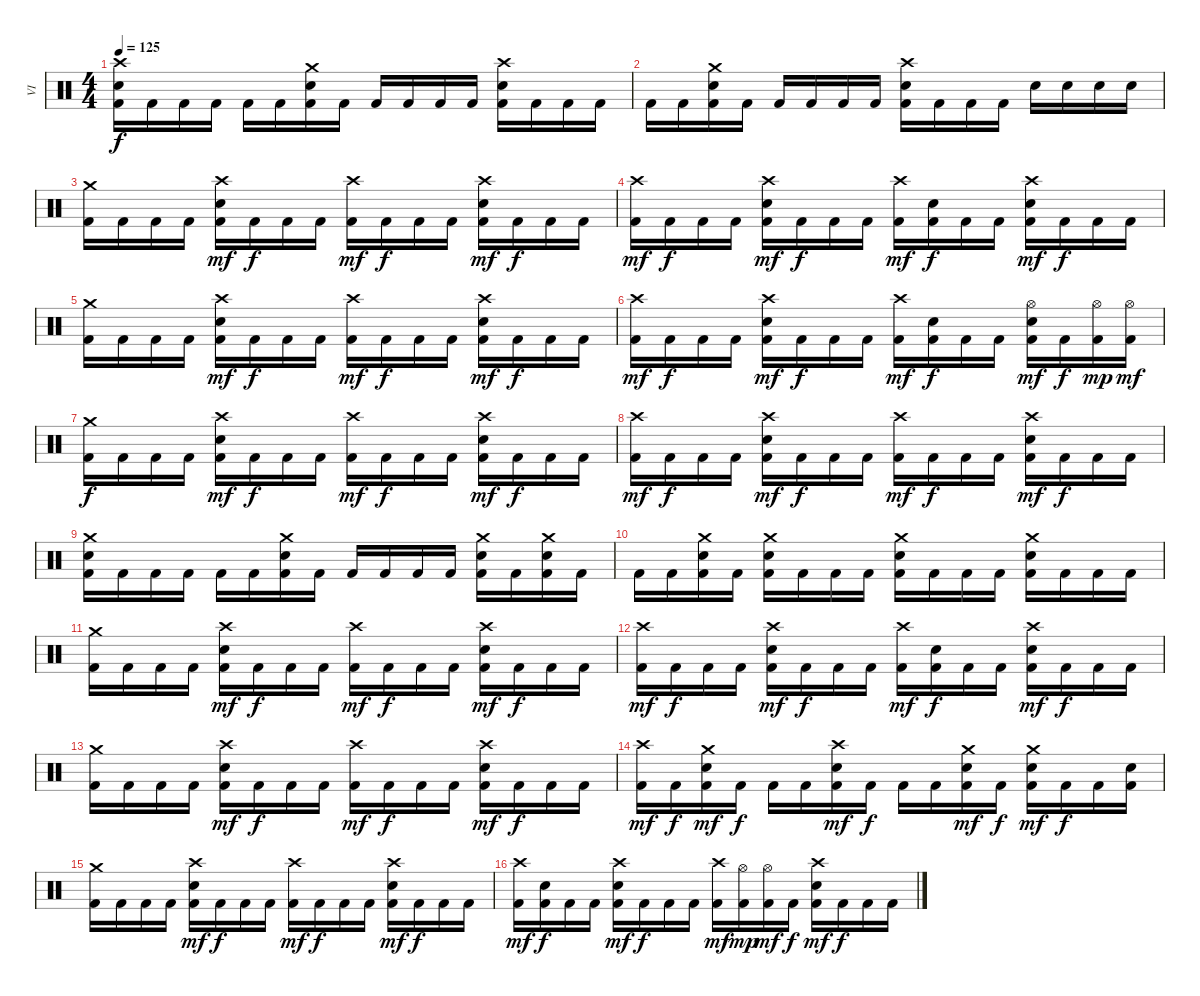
\track ("VI" "VI") {instrument percussion}
\staff {score}
\articulation defaults
\ts (4 4)
\tempo 125
\clef neutral
\ks c
("Crash high (hit)" "Electric Snare (hit)" "Kick (hit) 2").16{dy f} "Kick (hit) 2".16 "Kick (hit) 2".16 "Kick (hit) 2".16 "Kick (hit) 2".16 "Kick (hit) 2".16 ("Crash medium (hit)" "Electric Snare (hit)" "Kick (hit) 2").16 "Kick (hit) 2".16 "Kick (hit) 2".16 "Kick (hit) 2".16 "Kick (hit) 2".16 "Kick (hit) 2".16 ("Crash high (hit)" "Electric Snare (hit)" "Kick (hit) 2").16 "Kick (hit) 2".16 "Kick (hit) 2".16 "Kick (hit) 2".16 |
"Kick (hit) 2".16 "Kick (hit) 2".16 ("Crash medium (hit)" "Electric Snare (hit)" "Kick (hit) 2").16 "Kick (hit) 2".16 "Kick (hit) 2".16 "Kick (hit) 2".16 "Kick (hit) 2".16 "Kick (hit) 2".16 ("Crash high (hit)" "Electric Snare (hit)" "Kick (hit) 2").16 "Kick (hit) 2".16 "Kick (hit) 2".16 "Kick (hit) 2".16 "Electric Snare (hit)".16 "Electric Snare (hit)".16 "Electric Snare (hit)".16 "Electric Snare (hit)".16 |
("Crash medium (hit)" "Kick (hit) 2").16 "Kick (hit) 2".16 "Kick (hit) 2".16 "Kick (hit) 2".16 ("Crash high (hit)" "Electric Snare (hit)" "Kick (hit) 2").16{dy mf} "Kick (hit) 2".16{dy f} "Kick (hit) 2".16 "Kick (hit) 2".16 ("Crash high (hit)" "Kick (hit) 2").16{dy mf} "Kick (hit) 2".16{dy f} "Kick (hit) 2".16 "Kick (hit) 2".16 ("Crash high (hit)" "Electric Snare (hit)" "Kick (hit) 2").16{dy mf} "Kick (hit) 2".16{dy f} "Kick (hit) 2".16 "Kick (hit) 2".16 |
("Crash high (hit)" "Kick (hit) 2").16{dy mf} "Kick (hit) 2".16{dy f} "Kick (hit) 2".16 "Kick (hit) 2".16 ("Crash high (hit)" "Electric Snare (hit)" "Kick (hit) 2").16{dy mf} "Kick (hit) 2".16{dy f} "Kick (hit) 2".16 "Kick (hit) 2".16 ("Crash high (hit)" "Kick (hit) 2").16{dy mf} ("Electric Snare (hit)" "Kick (hit) 2").16{dy f} "Kick (hit) 2".16 "Kick (hit) 2".16 ("Crash high (hit)" "Electric Snare (hit)" "Kick (hit) 2").16{dy mf} "Kick (hit) 2".16{dy f} "Kick (hit) 2".16 "Kick (hit) 2".16 |
("Crash medium (hit)" "Kick (hit) 2").16 "Kick (hit) 2".16 "Kick (hit) 2".16 "Kick (hit) 2".16 ("Crash high (hit)" "Electric Snare (hit)" "Kick (hit) 2").16{dy mf} "Kick (hit) 2".16{dy f} "Kick (hit) 2".16 "Kick (hit) 2".16 ("Crash high (hit)" "Kick (hit) 2").16{dy mf} "Kick (hit) 2".16{dy f} "Kick (hit) 2".16 "Kick (hit) 2".16 ("Crash high (hit)" "Electric Snare (hit)" "Kick (hit) 2").16{dy mf} "Kick (hit) 2".16{dy f} "Kick (hit) 2".16 "Kick (hit) 2".16 |
("Crash high (hit)" "Kick (hit) 2").16{dy mf} "Kick (hit) 2".16{dy f} "Kick (hit) 2".16 "Kick (hit) 2".16 ("Crash high (hit)" "Electric Snare (hit)" "Kick (hit) 2").16{dy mf} "Kick (hit) 2".16{dy f} "Kick (hit) 2".16 "Kick (hit) 2".16 ("Crash high (hit)" "Kick (hit) 2").16{dy mf} ("Electric Snare (hit)" "Kick (hit) 2").16{dy f} "Kick (hit) 2".16 "Kick (hit) 2".16 ("Hi-Hat (open)" "Electric Snare (hit)" "Kick (hit) 2").16{dy mf} "Kick (hit) 2".16{dy f} ("Hi-Hat (open)" "Kick (hit) 2").16{dy mp} ("Hi-Hat (open)" "Kick (hit) 2").16{dy mf} |
("Crash medium (hit)" "Kick (hit) 2").16{dy f} "Kick (hit) 2".16 "Kick (hit) 2".16 "Kick (hit) 2".16 ("Crash high (hit)" "Electric Snare (hit)" "Kick (hit) 2").16{dy mf} "Kick (hit) 2".16{dy f} "Kick (hit) 2".16 "Kick (hit) 2".16 ("Crash high (hit)" "Kick (hit) 2").16{dy mf} "Kick (hit) 2".16{dy f} "Kick (hit) 2".16 "Kick (hit) 2".16 ("Crash high (hit)" "Electric Snare (hit)" "Kick (hit) 2").16{dy mf} "Kick (hit) 2".16{dy f} "Kick (hit) 2".16 "Kick (hit) 2".16 |
("Crash high (hit)" "Kick (hit) 2").16{dy mf} "Kick (hit) 2".16{dy f} "Kick (hit) 2".16 "Kick (hit) 2".16 ("Crash high (hit)" "Electric Snare (hit)" "Kick (hit) 2").16{dy mf} "Kick (hit) 2".16{dy f} "Kick (hit) 2".16 "Kick (hit) 2".16 ("Crash high (hit)" "Kick (hit) 2").16{dy mf} "Kick (hit) 2".16{dy f} "Kick (hit) 2".16 "Kick (hit) 2".16 ("Crash high (hit)" "Electric Snare (hit)" "Kick (hit) 2").16{dy mf} "Kick (hit) 2".16{dy f} "Kick (hit) 2".16 "Kick (hit) 2".16 |
("Crash medium (hit)" "Electric Snare (hit)" "Kick (hit) 2").16 "Kick (hit) 2".16 "Kick (hit) 2".16 "Kick (hit) 2".16 "Kick (hit) 2".16 "Kick (hit) 2".16 ("Crash medium (hit)" "Electric Snare (hit)" "Kick (hit) 2").16 "Kick (hit) 2".16 "Kick (hit) 2".16 "Kick (hit) 2".16 "Kick (hit) 2".16 "Kick (hit) 2".16 ("Crash medium (hit)" "Electric Snare (hit)" "Kick (hit) 2").16 "Kick (hit) 2".16 ("Crash medium (hit)" "Electric Snare (hit)" "Kick (hit) 2").16 "Kick (hit) 2".16 |
"Kick (hit) 2".16 "Kick (hit) 2".16 ("Crash medium (hit)" "Electric Snare (hit)" "Kick (hit) 2").16 "Kick (hit) 2".16 ("Crash medium (hit)" "Electric Snare (hit)" "Kick (hit) 2").16 "Kick (hit) 2".16 "Kick (hit) 2".16 "Kick (hit) 2".16 ("Crash medium (hit)" "Electric Snare (hit)" "Kick (hit) 2").16 "Kick (hit) 2".16 "Kick (hit) 2".16 "Kick (hit) 2".16 ("Crash medium (hit)" "Electric Snare (hit)" "Kick (hit) 2").16 "Kick (hit) 2".16 "Kick (hit) 2".16 "Kick (hit) 2".16 |
("Crash medium (hit)" "Kick (hit) 2").16 "Kick (hit) 2".16 "Kick (hit) 2".16 "Kick (hit) 2".16 ("Crash high (hit)" "Electric Snare (hit)" "Kick (hit) 2").16{dy mf} "Kick (hit) 2".16{dy f} "Kick (hit) 2".16 "Kick (hit) 2".16 ("Crash high (hit)" "Kick (hit) 2").16{dy mf} "Kick (hit) 2".16{dy f} "Kick (hit) 2".16 "Kick (hit) 2".16 ("Crash high (hit)" "Electric Snare (hit)" "Kick (hit) 2").16{dy mf} "Kick (hit) 2".16{dy f} "Kick (hit) 2".16 "Kick (hit) 2".16 |
("Crash high (hit)" "Kick (hit) 2").16{dy mf} "Kick (hit) 2".16{dy f} "Kick (hit) 2".16 "Kick (hit) 2".16 ("Crash high (hit)" "Electric Snare (hit)" "Kick (hit) 2").16{dy mf} "Kick (hit) 2".16{dy f} "Kick (hit) 2".16 "Kick (hit) 2".16 ("Crash high (hit)" "Kick (hit) 2").16{dy mf} ("Electric Snare (hit)" "Kick (hit) 2").16{dy f} "Kick (hit) 2".16 "Kick (hit) 2".16 ("Crash high (hit)" "Electric Snare (hit)" "Kick (hit) 2").16{dy mf} "Kick (hit) 2".16{dy f} "Kick (hit) 2".16 "Kick (hit) 2".16 |
("Crash medium (hit)" "Kick (hit) 2").16 "Kick (hit) 2".16 "Kick (hit) 2".16 "Kick (hit) 2".16 ("Crash high (hit)" "Electric Snare (hit)" "Kick (hit) 2").16{dy mf} "Kick (hit) 2".16{dy f} "Kick (hit) 2".16 "Kick (hit) 2".16 ("Crash high (hit)" "Kick (hit) 2").16{dy mf} "Kick (hit) 2".16{dy f} "Kick (hit) 2".16 "Kick (hit) 2".16 ("Crash high (hit)" "Electric Snare (hit)" "Kick (hit) 2").16{dy mf} "Kick (hit) 2".16{dy f} "Kick (hit) 2".16 "Kick (hit) 2".16 |
("Crash high (hit)" "Kick (hit) 2").16{dy mf} "Kick (hit) 2".16{dy f} ("Crash medium (hit)" "Electric Snare (hit)" "Kick (hit) 2").16{dy mf} "Kick (hit) 2".16{dy f} "Kick (hit) 2".16 "Kick (hit) 2".16 ("Crash high (hit)" "Electric Snare (hit)" "Kick (hit) 2").16{dy mf} "Kick (hit) 2".16{dy f} "Kick (hit) 2".16 "Kick (hit) 2".16 ("Crash medium (hit)" "Electric Snare (hit)" "Kick (hit) 2").16{dy mf} "Kick (hit) 2".16{dy f} ("Crash medium (hit)" "Electric Snare (hit)" "Kick (hit) 2").16{dy mf} "Kick (hit) 2".16{dy f} "Kick (hit) 2".16 ("Electric Snare (hit)" "Kick (hit) 2").16 |
("Crash medium (hit)" "Kick (hit) 2").16 "Kick (hit) 2".16 "Kick (hit) 2".16 "Kick (hit) 2".16 ("Crash high (hit)" "Electric Snare (hit)" "Kick (hit) 2").16{dy mf} "Kick (hit) 2".16{dy f} "Kick (hit) 2".16 "Kick (hit) 2".16 ("Crash high (hit)" "Kick (hit) 2").16{dy mf} "Kick (hit) 2".16{dy f} "Kick (hit) 2".16 "Kick (hit) 2".16 ("Crash high (hit)" "Electric Snare (hit)" "Kick (hit) 2").16{dy mf} "Kick (hit) 2".16{dy f} "Kick (hit) 2".16 "Kick (hit) 2".16 |
("Crash high (hit)" "Kick (hit) 2").16{dy mf} ("Electric Snare (hit)" "Kick (hit) 2").16{dy f} "Kick (hit) 2".16 "Kick (hit) 2".16 ("Crash high (hit)" "Electric Snare (hit)" "Kick (hit) 2").16{dy mf} "Kick (hit) 2".16{dy f} "Kick (hit) 2".16 "Kick (hit) 2".16 ("Crash high (hit)" "Kick (hit) 2").16{dy mf} ("Hi-Hat (open)" "Kick (hit) 2").16{dy mp} ("Hi-Hat (open)" "Kick (hit) 2").16{dy mf} "Kick (hit) 2".16{dy f} ("Crash high (hit)" "Electric Snare (hit)" "Kick (hit) 2").16{dy mf} "Kick (hit) 2".16{dy f} "Kick (hit) 2".16 "Kick (hit) 2".16
